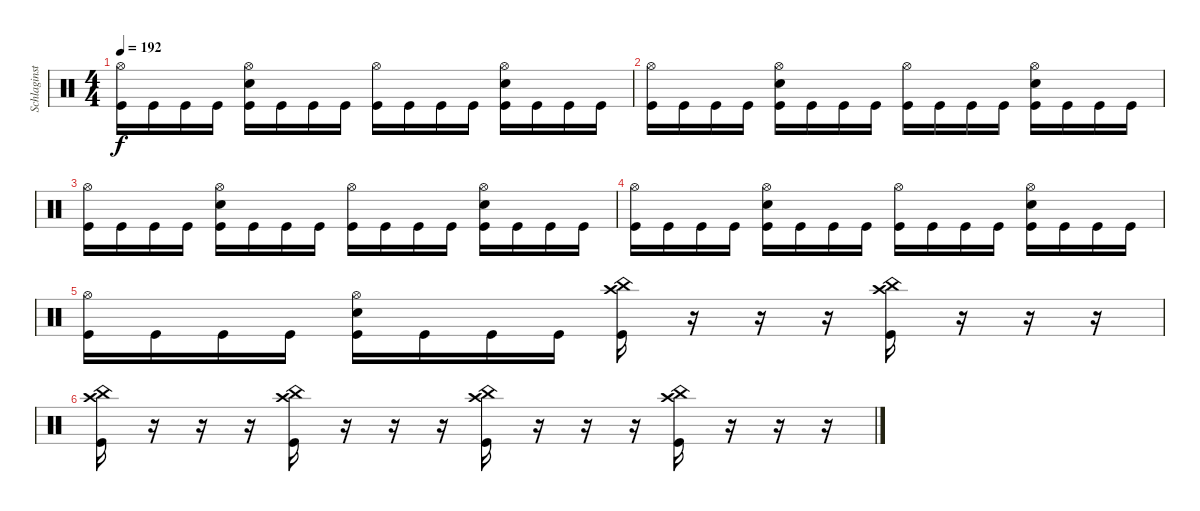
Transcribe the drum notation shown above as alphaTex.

\track ("Schlaginstrumente - Auswahl" "Schlaginst") {instrument percussion}
\staff {score}
\articulation defaults
\ts (4 4)
\tempo 192
\clef neutral
\ks c
("Hi-Hat (open)" "Kick (hit)").16{dy f} "Kick (hit)".16 "Kick (hit)".16 "Kick (hit)".16 ("Hi-Hat (open)" "Snare (hit) 2" "Kick (hit)").16 "Kick (hit)".16 "Kick (hit)".16 "Kick (hit)".16 ("Hi-Hat (open)" "Kick (hit)").16 "Kick (hit)".16 "Kick (hit)".16 "Kick (hit)".16 ("Hi-Hat (open)" "Snare (hit) 2" "Kick (hit)").16 "Kick (hit)".16 "Kick (hit)".16 "Kick (hit)".16 |
("Hi-Hat (open)" "Kick (hit)").16 "Kick (hit)".16 "Kick (hit)".16 "Kick (hit)".16 ("Hi-Hat (open)" "Snare (hit) 2" "Kick (hit)").16 "Kick (hit)".16 "Kick (hit)".16 "Kick (hit)".16 ("Hi-Hat (open)" "Kick (hit)").16 "Kick (hit)".16 "Kick (hit)".16 "Kick (hit)".16 ("Hi-Hat (open)" "Snare (hit) 2" "Kick (hit)").16 "Kick (hit)".16 "Kick (hit)".16 "Kick (hit)".16 |
("Hi-Hat (open)" "Kick (hit)").16 "Kick (hit)".16 "Kick (hit)".16 "Kick (hit)".16 ("Hi-Hat (open)" "Snare (hit) 2" "Kick (hit)").16 "Kick (hit)".16 "Kick (hit)".16 "Kick (hit)".16 ("Hi-Hat (open)" "Kick (hit)").16 "Kick (hit)".16 "Kick (hit)".16 "Kick (hit)".16 ("Hi-Hat (open)" "Snare (hit) 2" "Kick (hit)").16 "Kick (hit)".16 "Kick (hit)".16 "Kick (hit)".16 |
("Hi-Hat (open)" "Kick (hit)").16 "Kick (hit)".16 "Kick (hit)".16 "Kick (hit)".16 ("Hi-Hat (open)" "Snare (hit) 2" "Kick (hit)").16 "Kick (hit)".16 "Kick (hit)".16 "Kick (hit)".16 ("Hi-Hat (open)" "Kick (hit)").16 "Kick (hit)".16 "Kick (hit)".16 "Kick (hit)".16 ("Hi-Hat (open)" "Snare (hit) 2" "Kick (hit)").16 "Kick (hit)".16 "Kick (hit)".16 "Kick (hit)".16 |
("Hi-Hat (open)" "Kick (hit)").16 "Kick (hit)".16 "Kick (hit)".16 "Kick (hit)".16 ("Hi-Hat (open)" "Snare (hit) 2" "Kick (hit)").16 "Kick (hit)".16 "Kick (hit)".16 "Kick (hit)".16 ("China (hit)" "Crash high (hit)" "Kick (hit)").16 r.16 r.16 r.16 ("China (hit)" "Crash high (hit)" "Kick (hit)").16 r.16 r.16 r.16 |
("China (hit)" "Crash high (hit)" "Kick (hit)").16 r.16 r.16 r.16 ("China (hit)" "Crash high (hit)" "Kick (hit)").16 r.16 r.16 r.16 ("China (hit)" "Crash high (hit)" "Kick (hit)").16 r.16 r.16 r.16 ("China (hit)" "Crash high (hit)" "Kick (hit)").16 r.16 r.16 r.16
